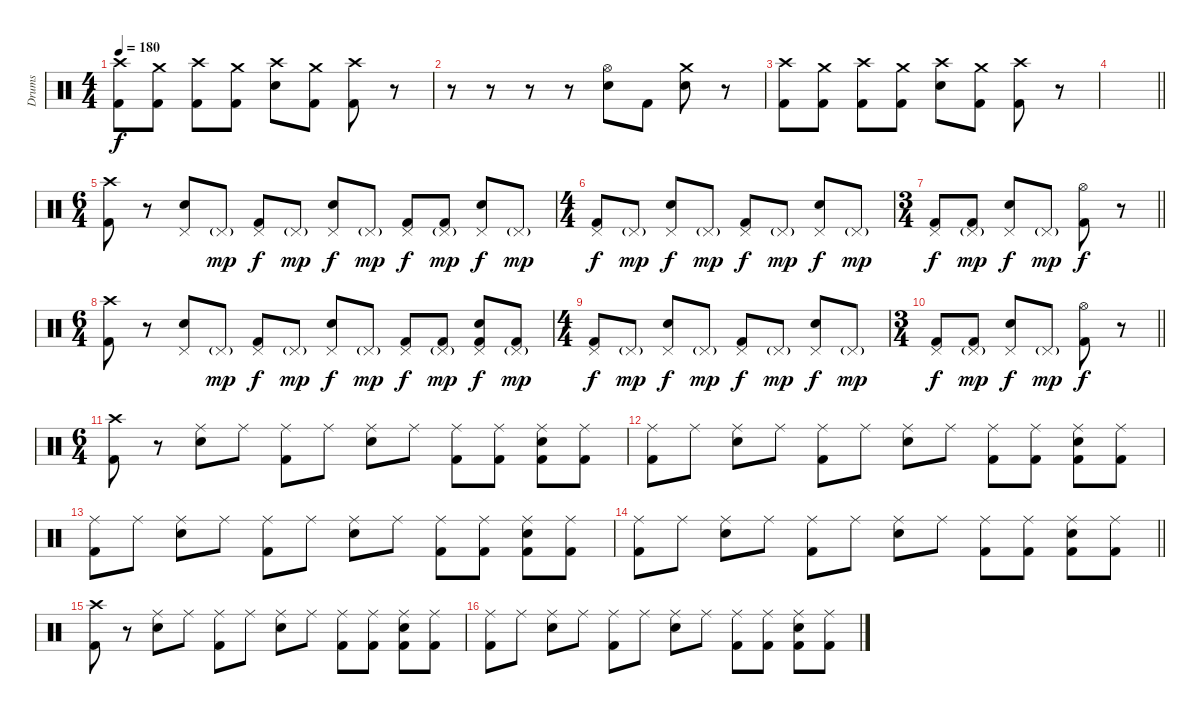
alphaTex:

\track ("Drums" "Drums") {instrument percussion}
\staff {score}
\articulation defaults
\ts (4 4)
\tempo 180
\clef neutral
\ks c
("Crash high (hit)" "Kick (hit) 2").8{dy f} ("Crash medium (hit)" "Kick (hit) 2").8 ("Crash high (hit)" "Kick (hit) 2").8 ("Crash medium (hit)" "Kick (hit) 2").8 ("Crash high (hit)" "Electric Snare (hit)").8 ("Crash medium (hit)" "Kick (hit) 2").8 ("Crash high (hit)" "Kick (hit) 2").8 r.8 |
r.8 r.8 r.8 r.8 ("Hi-Hat (open)" "Electric Snare (hit)").8 "Kick (hit) 2".8 ("Crash medium (hit)" "Electric Snare (hit)").8 r.8 |
("Crash high (hit)" "Kick (hit) 2").8 ("Crash medium (hit)" "Kick (hit) 2").8 ("Crash high (hit)" "Kick (hit) 2").8 ("Crash medium (hit)" "Kick (hit) 2").8 ("Crash high (hit)" "Electric Snare (hit)").8 ("Crash medium (hit)" "Kick (hit) 2").8 ("Crash high (hit)" "Kick (hit) 2").8 r.8 |
\barLineRight lightlight
|
\ts (6 4)
("Crash high (hit)" "Kick (hit) 2").8 r.8 ("Pedal Hi-Hat (hit)" "Electric Snare (hit)").8 "Pedal Hi-Hat (hit)"{g}.8{dy mp} ("Pedal Hi-Hat (hit)" "Kick (hit) 2").8{dy f} "Pedal Hi-Hat (hit)"{g}.8{dy mp} ("Pedal Hi-Hat (hit)" "Electric Snare (hit)").8{dy f} "Pedal Hi-Hat (hit)"{g}.8{dy mp} ("Pedal Hi-Hat (hit)" "Kick (hit) 2").8{dy f} ("Pedal Hi-Hat (hit)"{g} "Kick (hit) 2").8{dy mp} ("Pedal Hi-Hat (hit)" "Electric Snare (hit)").8{dy f} "Pedal Hi-Hat (hit)"{g}.8{dy mp} |
\ts (4 4)
("Pedal Hi-Hat (hit)" "Kick (hit) 2").8{dy f} "Pedal Hi-Hat (hit)"{g}.8{dy mp} ("Pedal Hi-Hat (hit)" "Electric Snare (hit)").8{dy f} "Pedal Hi-Hat (hit)"{g}.8{dy mp} ("Pedal Hi-Hat (hit)" "Kick (hit) 2").8{dy f} "Pedal Hi-Hat (hit)"{g}.8{dy mp} ("Pedal Hi-Hat (hit)" "Electric Snare (hit)").8{dy f} "Pedal Hi-Hat (hit)"{g}.8{dy mp} |
\ts (3 4)
\barLineRight lightlight
("Pedal Hi-Hat (hit)" "Kick (hit) 2").8{dy f} ("Pedal Hi-Hat (hit)"{g} "Kick (hit) 2").8{dy mp} ("Pedal Hi-Hat (hit)" "Electric Snare (hit)").8{dy f} "Pedal Hi-Hat (hit)"{g}.8{dy mp} ("Hi-Hat (open)" "Kick (hit) 2").8{dy f} r.8 |
\ts (6 4)
("Crash high (hit)" "Kick (hit) 2").8 r.8 ("Pedal Hi-Hat (hit)" "Electric Snare (hit)").8 "Pedal Hi-Hat (hit)"{g}.8{dy mp} ("Pedal Hi-Hat (hit)" "Kick (hit) 2").8{dy f} "Pedal Hi-Hat (hit)"{g}.8{dy mp} ("Pedal Hi-Hat (hit)" "Electric Snare (hit)").8{dy f} "Pedal Hi-Hat (hit)"{g}.8{dy mp} ("Pedal Hi-Hat (hit)" "Kick (hit) 2").8{dy f} ("Pedal Hi-Hat (hit)"{g} "Kick (hit) 2").8{dy mp} ("Pedal Hi-Hat (hit)" "Electric Snare (hit)" "Kick (hit) 2").8{dy f} ("Pedal Hi-Hat (hit)"{g} "Kick (hit) 2").8{dy mp} |
\ts (4 4)
("Pedal Hi-Hat (hit)" "Kick (hit) 2").8{dy f} "Pedal Hi-Hat (hit)"{g}.8{dy mp} ("Pedal Hi-Hat (hit)" "Electric Snare (hit)").8{dy f} "Pedal Hi-Hat (hit)"{g}.8{dy mp} ("Pedal Hi-Hat (hit)" "Kick (hit) 2").8{dy f} "Pedal Hi-Hat (hit)"{g}.8{dy mp} ("Pedal Hi-Hat (hit)" "Electric Snare (hit)").8{dy f} "Pedal Hi-Hat (hit)"{g}.8{dy mp} |
\ts (3 4)
\barLineRight lightlight
("Pedal Hi-Hat (hit)" "Kick (hit) 2").8{dy f} ("Pedal Hi-Hat (hit)"{g} "Kick (hit) 2").8{dy mp} ("Pedal Hi-Hat (hit)" "Electric Snare (hit)").8{dy f} "Pedal Hi-Hat (hit)"{g}.8{dy mp} ("Hi-Hat (open)" "Kick (hit) 2").8{dy f} r.8 |
\ts (6 4)
("Crash high (hit)" "Kick (hit) 2").8 r.8 ("Ride (middle)" "Electric Snare (hit)").8 "Ride (middle)".8 ("Ride (middle)" "Kick (hit) 2").8 "Ride (middle)".8 ("Ride (middle)" "Electric Snare (hit)").8 "Ride (middle)".8 ("Ride (middle)" "Kick (hit) 2").8 ("Ride (middle)" "Kick (hit) 2").8 ("Ride (middle)" "Electric Snare (hit)" "Kick (hit) 2").8 ("Ride (middle)" "Kick (hit) 2").8 |
("Ride (middle)" "Kick (hit) 2").8 "Ride (middle)".8 ("Ride (middle)" "Electric Snare (hit)").8 "Ride (middle)".8 ("Ride (middle)" "Kick (hit) 2").8 "Ride (middle)".8 ("Ride (middle)" "Electric Snare (hit)").8 "Ride (middle)".8 ("Ride (middle)" "Kick (hit) 2").8 ("Ride (middle)" "Kick (hit) 2").8 ("Ride (middle)" "Electric Snare (hit)" "Kick (hit) 2").8 ("Ride (middle)" "Kick (hit) 2").8 |
("Ride (middle)" "Kick (hit) 2").8 "Ride (middle)".8 ("Ride (middle)" "Electric Snare (hit)").8 "Ride (middle)".8 ("Ride (middle)" "Kick (hit) 2").8 "Ride (middle)".8 ("Ride (middle)" "Electric Snare (hit)").8 "Ride (middle)".8 ("Ride (middle)" "Kick (hit) 2").8 ("Ride (middle)" "Kick (hit) 2").8 ("Ride (middle)" "Electric Snare (hit)" "Kick (hit) 2").8 ("Ride (middle)" "Kick (hit) 2").8 |
\barLineRight lightlight
("Ride (middle)" "Kick (hit) 2").8 "Ride (middle)".8 ("Ride (middle)" "Electric Snare (hit)").8 "Ride (middle)".8 ("Ride (middle)" "Kick (hit) 2").8 "Ride (middle)".8 ("Ride (middle)" "Electric Snare (hit)").8 "Ride (middle)".8 ("Ride (middle)" "Kick (hit) 2").8 ("Ride (middle)" "Kick (hit) 2").8 ("Ride (middle)" "Electric Snare (hit)" "Kick (hit) 2").8 ("Ride (middle)" "Kick (hit) 2").8 |
("Crash high (hit)" "Kick (hit) 2").8 r.8 ("Ride (middle)" "Electric Snare (hit)").8 "Ride (middle)".8 ("Ride (middle)" "Kick (hit) 2").8 "Ride (middle)".8 ("Ride (middle)" "Electric Snare (hit)").8 "Ride (middle)".8 ("Ride (middle)" "Kick (hit) 2").8 ("Ride (middle)" "Kick (hit) 2").8 ("Ride (middle)" "Electric Snare (hit)" "Kick (hit) 2").8 ("Ride (middle)" "Kick (hit) 2").8 |
("Ride (middle)" "Kick (hit) 2").8 "Ride (middle)".8 ("Ride (middle)" "Electric Snare (hit)").8 "Ride (middle)".8 ("Ride (middle)" "Kick (hit) 2").8 "Ride (middle)".8 ("Ride (middle)" "Electric Snare (hit)").8 "Ride (middle)".8 ("Ride (middle)" "Kick (hit) 2").8 ("Ride (middle)" "Kick (hit) 2").8 ("Ride (middle)" "Electric Snare (hit)" "Kick (hit) 2").8 ("Ride (middle)" "Kick (hit) 2").8
